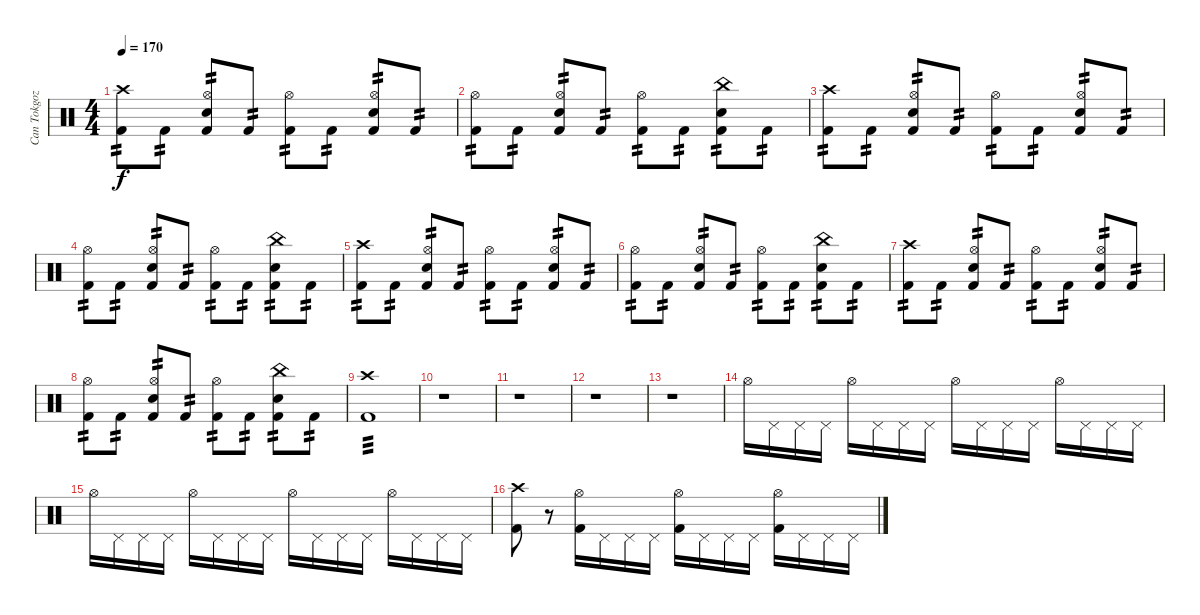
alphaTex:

\track ("Can Tokgoz" "Can Tokgoz") {instrument percussion}
\staff {score}
\articulation defaults
\ts (4 4)
\tempo 170
\clef neutral
\ks c
("Crash high (hit)" "Kick (hit) 2").8{tp 2 dy f} "Kick (hit) 2".8{tp 2} ("Hi-Hat (open)" "Snare (hit) 2" "Kick (hit) 2").8{tp 2} "Kick (hit) 2".8{tp 2} ("Hi-Hat (open)" "Kick (hit) 2").8{tp 2} "Kick (hit) 2".8{tp 2} ("Hi-Hat (open)" "Snare (hit) 2" "Kick (hit) 2").8{tp 2} "Kick (hit) 2".8{tp 2} |
("Hi-Hat (open)" "Kick (hit) 2").8{tp 2} "Kick (hit) 2".8{tp 2} ("Hi-Hat (open)" "Snare (hit) 2" "Kick (hit) 2").8{tp 2} "Kick (hit) 2".8{tp 2} ("Hi-Hat (open)" "Kick (hit) 2").8{tp 2} "Kick (hit) 2".8{tp 2} ("China (hit)" "Snare (hit) 2" "Kick (hit) 2").8{tp 2} "Kick (hit) 2".8{tp 2} |
("Crash high (hit)" "Kick (hit) 2").8{tp 2} "Kick (hit) 2".8{tp 2} ("Hi-Hat (open)" "Snare (hit) 2" "Kick (hit) 2").8{tp 2} "Kick (hit) 2".8{tp 2} ("Hi-Hat (open)" "Kick (hit) 2").8{tp 2} "Kick (hit) 2".8{tp 2} ("Hi-Hat (open)" "Snare (hit) 2" "Kick (hit) 2").8{tp 2} "Kick (hit) 2".8{tp 2} |
("Hi-Hat (open)" "Kick (hit) 2").8{tp 2} "Kick (hit) 2".8{tp 2} ("Hi-Hat (open)" "Snare (hit) 2" "Kick (hit) 2").8{tp 2} "Kick (hit) 2".8{tp 2} ("Hi-Hat (open)" "Kick (hit) 2").8{tp 2} "Kick (hit) 2".8{tp 2} ("China (hit)" "Snare (hit) 2" "Kick (hit) 2").8{tp 2} "Kick (hit) 2".8{tp 2} |
("Crash high (hit)" "Kick (hit) 2").8{tp 2} "Kick (hit) 2".8{tp 2} ("Hi-Hat (open)" "Snare (hit) 2" "Kick (hit) 2").8{tp 2} "Kick (hit) 2".8{tp 2} ("Hi-Hat (open)" "Kick (hit) 2").8{tp 2} "Kick (hit) 2".8{tp 2} ("Hi-Hat (open)" "Snare (hit) 2" "Kick (hit) 2").8{tp 2} "Kick (hit) 2".8{tp 2} |
("Hi-Hat (open)" "Kick (hit) 2").8{tp 2} "Kick (hit) 2".8{tp 2} ("Hi-Hat (open)" "Snare (hit) 2" "Kick (hit) 2").8{tp 2} "Kick (hit) 2".8{tp 2} ("Hi-Hat (open)" "Kick (hit) 2").8{tp 2} "Kick (hit) 2".8{tp 2} ("China (hit)" "Snare (hit) 2" "Kick (hit) 2").8{tp 2} "Kick (hit) 2".8{tp 2} |
("Crash high (hit)" "Kick (hit) 2").8{tp 2} "Kick (hit) 2".8{tp 2} ("Hi-Hat (open)" "Snare (hit) 2" "Kick (hit) 2").8{tp 2} "Kick (hit) 2".8{tp 2} ("Hi-Hat (open)" "Kick (hit) 2").8{tp 2} "Kick (hit) 2".8{tp 2} ("Hi-Hat (open)" "Snare (hit) 2" "Kick (hit) 2").8{tp 2} "Kick (hit) 2".8{tp 2} |
("Hi-Hat (open)" "Kick (hit) 2").8{tp 2} "Kick (hit) 2".8{tp 2} ("Hi-Hat (open)" "Snare (hit) 2" "Kick (hit) 2").8{tp 2} "Kick (hit) 2".8{tp 2} ("Hi-Hat (open)" "Kick (hit) 2").8{tp 2} "Kick (hit) 2".8{tp 2} ("China (hit)" "Snare (hit) 2" "Kick (hit) 2").8{tp 2} "Kick (hit) 2".8{tp 2} |
("Crash high (hit)" "Kick (hit) 2").1{tp 3} |
r.1 |
r.1 |
r.1 |
r.1 |
"Hi-Hat (open)".16 "Pedal Hi-Hat (hit)".16 "Pedal Hi-Hat (hit)".16 "Pedal Hi-Hat (hit)".16 "Hi-Hat (open)".16 "Pedal Hi-Hat (hit)".16 "Pedal Hi-Hat (hit)".16 "Pedal Hi-Hat (hit)".16 "Hi-Hat (open)".16 "Pedal Hi-Hat (hit)".16 "Pedal Hi-Hat (hit)".16 "Pedal Hi-Hat (hit)".16 "Hi-Hat (open)".16 "Pedal Hi-Hat (hit)".16 "Pedal Hi-Hat (hit)".16 "Pedal Hi-Hat (hit)".16 |
"Hi-Hat (open)".16 "Pedal Hi-Hat (hit)".16 "Pedal Hi-Hat (hit)".16 "Pedal Hi-Hat (hit)".16 "Hi-Hat (open)".16 "Pedal Hi-Hat (hit)".16 "Pedal Hi-Hat (hit)".16 "Pedal Hi-Hat (hit)".16 "Hi-Hat (open)".16 "Pedal Hi-Hat (hit)".16 "Pedal Hi-Hat (hit)".16 "Pedal Hi-Hat (hit)".16 "Hi-Hat (open)".16 "Pedal Hi-Hat (hit)".16 "Pedal Hi-Hat (hit)".16 "Pedal Hi-Hat (hit)".16 |
("Crash high (hit)" "Kick (hit) 2").8 r.8 ("Hi-Hat (open)" "Kick (hit) 2").16 "Pedal Hi-Hat (hit)".16 "Pedal Hi-Hat (hit)".16 "Pedal Hi-Hat (hit)".16 ("Hi-Hat (open)" "Kick (hit) 2").16 "Pedal Hi-Hat (hit)".16 "Pedal Hi-Hat (hit)".16 "Pedal Hi-Hat (hit)".16 ("Hi-Hat (open)" "Kick (hit) 2").16 "Pedal Hi-Hat (hit)".16 "Pedal Hi-Hat (hit)".16 "Pedal Hi-Hat (hit)".16
